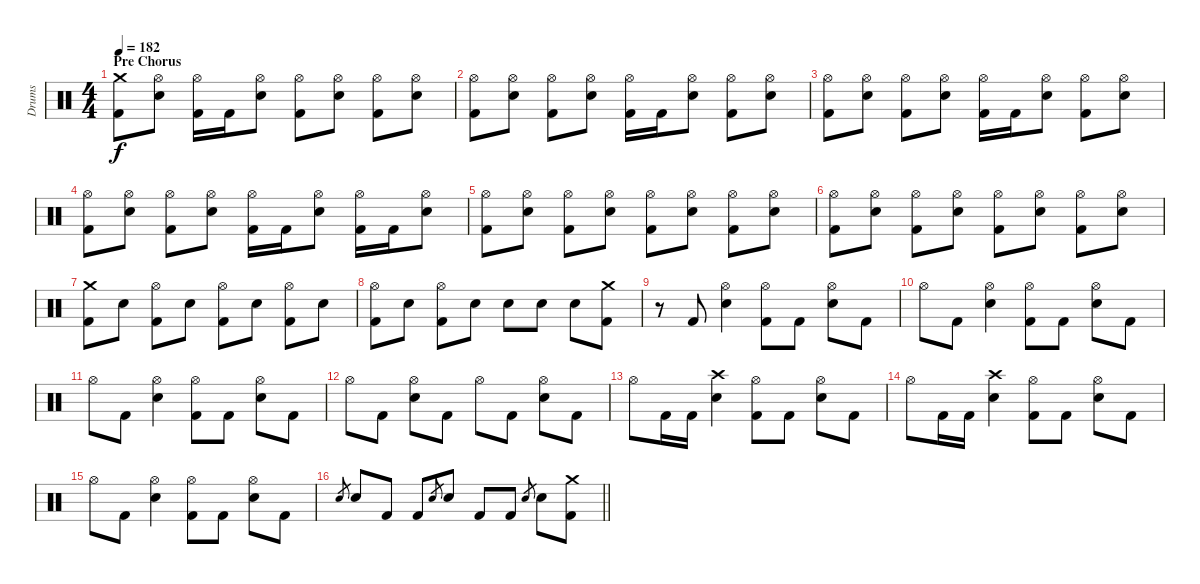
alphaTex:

\track ("Drums" "Drums") {instrument percussion}
\staff {score}
\articulation defaults
\ts (4 4)
\section ("" "Pre Chorus")
\tempo 182
\clef neutral
\ks c
("Crash medium (hit)" "Kick (hit) 2").8{dy f} ("Hi-Hat (open)" "Snare (hit) 2").8 ("Hi-Hat (open)" "Kick (hit) 2").16 "Kick (hit) 2".16 ("Hi-Hat (open)" "Snare (hit) 2").8 ("Hi-Hat (open)" "Kick (hit) 2").8 ("Hi-Hat (open)" "Snare (hit) 2").8 ("Hi-Hat (open)" "Kick (hit) 2").8 ("Hi-Hat (open)" "Snare (hit) 2").8 |
("Hi-Hat (open)" "Kick (hit) 2").8 ("Hi-Hat (open)" "Snare (hit) 2").8 ("Hi-Hat (open)" "Kick (hit) 2").8 ("Hi-Hat (open)" "Snare (hit) 2").8 ("Hi-Hat (open)" "Kick (hit) 2").16 "Kick (hit) 2".16 ("Hi-Hat (open)" "Snare (hit) 2").8 ("Hi-Hat (open)" "Kick (hit) 2").8 ("Hi-Hat (open)" "Snare (hit) 2").8 |
("Hi-Hat (open)" "Kick (hit) 2").8 ("Hi-Hat (open)" "Snare (hit) 2").8 ("Hi-Hat (open)" "Kick (hit) 2").8 ("Hi-Hat (open)" "Snare (hit) 2").8 ("Hi-Hat (open)" "Kick (hit) 2").16 "Kick (hit) 2".16 ("Hi-Hat (open)" "Snare (hit) 2").8 ("Hi-Hat (open)" "Kick (hit) 2").8 ("Hi-Hat (open)" "Snare (hit) 2").8 |
("Hi-Hat (open)" "Kick (hit) 2").8 ("Hi-Hat (open)" "Snare (hit) 2").8 ("Hi-Hat (open)" "Kick (hit) 2").8 ("Hi-Hat (open)" "Snare (hit) 2").8 ("Hi-Hat (open)" "Kick (hit) 2").16 "Kick (hit) 2".16 ("Hi-Hat (open)" "Snare (hit) 2").8 ("Hi-Hat (open)" "Kick (hit) 2").16 "Kick (hit) 2".16 ("Hi-Hat (open)" "Snare (hit) 2").8 |
("Hi-Hat (open)" "Kick (hit) 2").8 ("Hi-Hat (open)" "Snare (hit) 2").8 ("Hi-Hat (open)" "Kick (hit) 2").8 ("Hi-Hat (open)" "Snare (hit) 2").8 ("Hi-Hat (open)" "Kick (hit) 2").8 ("Hi-Hat (open)" "Snare (hit) 2").8 ("Hi-Hat (open)" "Kick (hit) 2").8 ("Hi-Hat (open)" "Snare (hit) 2").8 |
("Hi-Hat (open)" "Kick (hit) 2").8 ("Hi-Hat (open)" "Snare (hit) 2").8 ("Hi-Hat (open)" "Kick (hit) 2").8 ("Hi-Hat (open)" "Snare (hit) 2").8 ("Hi-Hat (open)" "Kick (hit) 2").8 ("Hi-Hat (open)" "Snare (hit) 2").8 ("Hi-Hat (open)" "Kick (hit) 2").8 ("Hi-Hat (open)" "Snare (hit) 2").8 |
("Crash medium (hit)" "Kick (hit) 2").8 "Snare (hit) 2".8 ("Hi-Hat (open)" "Kick (hit) 2").8 "Snare (hit) 2".8 ("Hi-Hat (open)" "Kick (hit) 2").8 "Snare (hit) 2".8 ("Hi-Hat (open)" "Kick (hit) 2").8 "Snare (hit) 2".8 |
("Hi-Hat (open)" "Kick (hit) 2").8 "Snare (hit) 2".8 ("Hi-Hat (open)" "Kick (hit) 2").8 "Snare (hit) 2".8 "Snare (hit) 2".8 "Snare (hit) 2".8 "Snare (hit) 2".8 ("Crash medium (hit)" "Kick (hit) 2").8 |
r.8 "Kick (hit) 2".8 ("Hi-Hat (open)" "Snare (hit) 2").4 ("Hi-Hat (open)" "Kick (hit) 2").8 "Kick (hit) 2".8 ("Hi-Hat (open)" "Snare (hit) 2").8 "Kick (hit) 2".8 |
"Hi-Hat (open)".8 "Kick (hit) 2".8 ("Hi-Hat (open)" "Snare (hit) 2").4 ("Hi-Hat (open)" "Kick (hit) 2").8 "Kick (hit) 2".8 ("Hi-Hat (open)" "Snare (hit) 2").8 "Kick (hit) 2".8 |
"Hi-Hat (open)".8 "Kick (hit) 2".8 ("Hi-Hat (open)" "Snare (hit) 2").4 ("Hi-Hat (open)" "Kick (hit) 2").8 "Kick (hit) 2".8 ("Hi-Hat (open)" "Snare (hit) 2").8 "Kick (hit) 2".8 |
"Hi-Hat (open)".8 "Kick (hit) 2".8 ("Hi-Hat (open)" "Snare (hit) 2").8 "Kick (hit) 2".8 "Hi-Hat (open)".8 "Kick (hit) 2".8 ("Hi-Hat (open)" "Snare (hit) 2").8 "Kick (hit) 2".8 |
"Hi-Hat (open)".8 "Kick (hit) 2".16 "Kick (hit) 2".16 ("Crash high (hit)" "Snare (hit) 2").4 ("Hi-Hat (open)" "Kick (hit) 2").8 "Kick (hit) 2".8 ("Hi-Hat (open)" "Snare (hit) 2").8 "Kick (hit) 2".8 |
"Hi-Hat (open)".8 "Kick (hit) 2".16 "Kick (hit) 2".16 ("Crash high (hit)" "Snare (hit) 2").4 ("Hi-Hat (open)" "Kick (hit) 2").8 "Kick (hit) 2".8 ("Hi-Hat (open)" "Snare (hit) 2").8 "Kick (hit) 2".8 |
"Hi-Hat (open)".8 "Kick (hit) 2".8 ("Hi-Hat (open)" "Snare (hit) 2").4 ("Hi-Hat (open)" "Kick (hit) 2").8 "Kick (hit) 2".8 ("Hi-Hat (open)" "Snare (hit) 2").8 "Kick (hit) 2".8 |
\barLineRight lightlight "Snare (hit) 2".8{gr} "Snare (hit) 2".8 "Kick (hit) 2".8 "Kick (hit) 2".8 "Snare (hit) 2".8{gr} "Snare (hit) 2".8 "Kick (hit) 2".8 "Kick (hit) 2".8 "Snare (hit) 2".8{gr} "Snare (hit) 2".8
("Crash medium (hit)" "Kick (hit) 2").8
